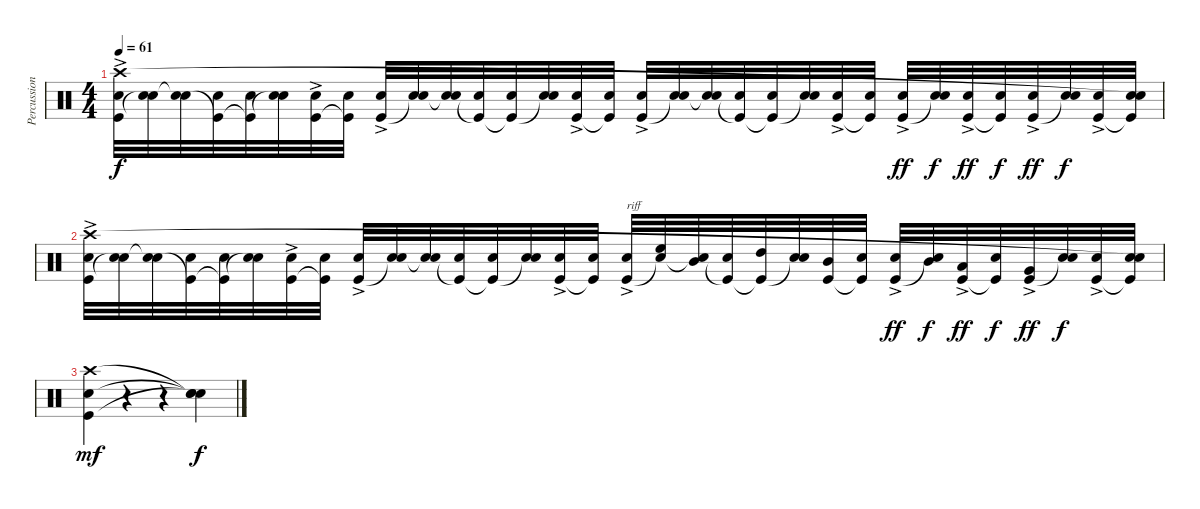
\track ("Percussion" "Percussion") {instrument percussion}
\staff {score}
\articulation defaults
\ts (4 4)
\tempo 61
\clef neutral
\ks c
("Snare (hit) 2" "Kick (hit)"{ac} "Crash high (hit)").32{dy f} ("Snare (hit) 2" "Snare (hit)"{t}).32 ("Snare (hit) 2" "Snare (hit)"{t}).32 ("Snare (hit) 2" "Kick (hit)"{t}).32 ("Snare (hit) 2" "Kick (hit)"{t}).32 ("Snare (hit) 2" "Snare (hit)"{t}).32 ("Snare (hit) 2"{ac} "Kick (hit)").32 ("Snare (hit) 2" "Kick (hit)"{t}).32 ("Snare (hit) 2"{ac} "Kick (hit)").32 ("Snare (hit) 2" "Snare (hit)"{t}).32 ("Snare (hit) 2" "Snare (hit)"{t}).32 ("Snare (hit) 2" "Kick (hit)"{t}).32 ("Snare (hit) 2" "Kick (hit)"{t}).32 ("Snare (hit) 2" "Snare (hit)"{t}).32 ("Snare (hit) 2" "Kick (hit)"{ac}).32 ("Snare (hit) 2" "Kick (hit)"{t}).32 ("Snare (hit) 2" "Kick (hit)"{ac}).32 ("Snare (hit) 2" "Snare (hit)"{t}).32 ("Snare (hit) 2" "Snare (hit)"{t}).32 ("Snare (hit) 2" "Kick (hit)"{t}).32 ("Snare (hit) 2" "Kick (hit)"{t}).32 ("Snare (hit) 2" "Snare (hit)"{t}).32 ("Snare (hit) 2"{ac} "Kick (hit)").32 ("Snare (hit) 2" "Kick (hit)"{t}).32 ("Snare (hit) 2"{ac} "Kick (hit)"{ac}).32{dy ff} ("Snare (hit) 2" "Snare (hit)"{t}).32{dy f} ("Snare (hit) 2" "Kick (hit)"{ac}).32{dy ff} ("Snare (hit) 2" "Kick (hit)"{t}).32{dy f} ("Snare (hit) 2" "Kick (hit)"{ac}).32{dy ff} ("Snare (hit) 2" "Snare (hit)"{t}).32{dy f} ("Snare (hit) 2" "Kick (hit)"{ac}).32 ("Snare (hit) 2" "Kick (hit)"{t} "Snare (hit)"{t}).32 |
("Snare (hit) 2" "Kick (hit)"{ac} "Crash high (hit)").32 ("Snare (hit) 2" "Snare (hit)"{t}).32 ("Snare (hit) 2" "Snare (hit)"{t}).32 ("Snare (hit) 2" "Kick (hit)"{t}).32 ("Snare (hit) 2" "Kick (hit)"{t}).32 ("Snare (hit) 2" "Snare (hit)"{t}).32 ("Snare (hit) 2"{ac} "Kick (hit)").32 ("Snare (hit) 2" "Kick (hit)"{t}).32 ("Snare (hit) 2"{ac} "Kick (hit)").32 ("Snare (hit) 2" "Snare (hit)"{t}).32 ("Snare (hit) 2" "Snare (hit)"{t}).32 ("Snare (hit) 2" "Kick (hit)"{t}).32 ("Snare (hit) 2" "Kick (hit)"{t}).32 ("Snare (hit) 2" "Snare (hit)"{t}).32 ("Snare (hit) 2" "Kick (hit)"{ac}).32 ("Snare (hit) 2" "Kick (hit)"{t}).32 ("Snare (hit) 2" "Kick (hit)"{ac}).32{txt "riff"} ("High Floor Tom (hit)" "Snare (hit)"{t}).32 ("Mid Tom (hit)" "Snare (hit)"{t}).32 ("Snare (hit) 2" "Kick (hit)"{t}).32 ("High Tom (hit)" "Kick (hit)"{t}).32 ("Snare (hit) 2" "Snare (hit)"{t}).32 ("Mid Tom (hit)" "Kick (hit)").32 ("Snare (hit) 2" "Kick (hit)"{t}).32 ("Snare (hit) 2"{ac} "Kick (hit)"{ac}).32{dy ff} ("Mid Tom (hit)" "Snare (hit)"{t}).32{dy f} ("Low Tom (hit)" "Kick (hit)"{ac}).32{dy ff} ("Snare (hit) 2" "Kick (hit)"{t}).32{dy f} ("Very Low Tom (hit)" "Kick (hit)"{ac}).32{dy ff} ("Snare (hit) 2" "Snare (hit)"{t}).32{dy f} ("Snare (hit) 2" "Kick (hit)"{ac}).32 ("Snare (hit) 2" "Kick (hit)"{t} "Snare (hit)"{t}).32 |
("Snare (hit) 2" "Kick (hit)" "Crash high (hit)").4{dy mf} r.4 r.4 ("Snare (hit)"{t} "Snare (hit)"{t} "Snare (hit)"{t}).4{dy f}
